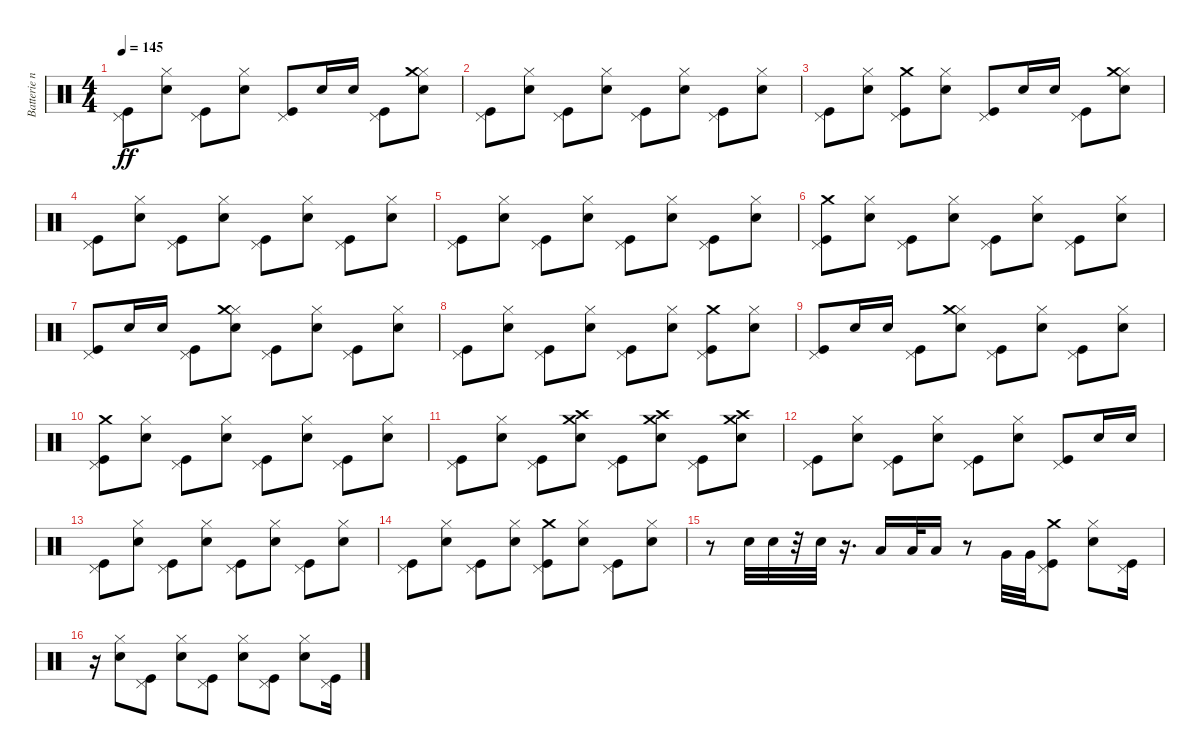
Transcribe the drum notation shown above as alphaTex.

\track ("Batterie n°3" "Batterie n") {instrument percussion}
\staff {score}
\articulation defaults
\ts (4 4)
\tempo 145
\clef neutral
\ks c
("Kick (hit)" "Pedal Hi-Hat (hit)").8{dy ff} ("Snare (hit) 2" "Hi-Hat (closed)").8 ("Kick (hit)" "Pedal Hi-Hat (hit)").8 ("Snare (hit) 2" "Hi-Hat (closed)").8 ("Kick (hit)" "Pedal Hi-Hat (hit)").8 "Snare (hit) 2".16 "Snare (hit) 2".16 ("Kick (hit)" "Pedal Hi-Hat (hit)").8 ("Snare (hit) 2" "Hi-Hat (closed)" "Crash medium (hit)").8 |
("Kick (hit)" "Pedal Hi-Hat (hit)").8 ("Snare (hit) 2" "Hi-Hat (closed)").8 ("Kick (hit)" "Pedal Hi-Hat (hit)").8 ("Snare (hit) 2" "Hi-Hat (closed)").8 ("Kick (hit)" "Pedal Hi-Hat (hit)").8 ("Snare (hit) 2" "Hi-Hat (closed)").8 ("Kick (hit)" "Pedal Hi-Hat (hit)").8 ("Snare (hit) 2" "Hi-Hat (closed)").8 |
("Kick (hit)" "Pedal Hi-Hat (hit)").8 ("Snare (hit) 2" "Hi-Hat (closed)").8 ("Kick (hit)" "Pedal Hi-Hat (hit)" "Crash medium (hit)").8 ("Snare (hit) 2" "Hi-Hat (closed)").8 ("Kick (hit)" "Pedal Hi-Hat (hit)").8 "Snare (hit) 2".16 "Snare (hit) 2".16 ("Kick (hit)" "Pedal Hi-Hat (hit)").8 ("Snare (hit) 2" "Hi-Hat (closed)" "Crash medium (hit)").8 |
("Kick (hit)" "Pedal Hi-Hat (hit)").8 ("Snare (hit) 2" "Hi-Hat (closed)").8 ("Kick (hit)" "Pedal Hi-Hat (hit)").8 ("Snare (hit) 2" "Hi-Hat (closed)").8 ("Kick (hit)" "Pedal Hi-Hat (hit)").8 ("Snare (hit) 2" "Hi-Hat (closed)").8 ("Kick (hit)" "Pedal Hi-Hat (hit)").8 ("Snare (hit) 2" "Hi-Hat (closed)").8 |
("Kick (hit)" "Pedal Hi-Hat (hit)").8 ("Snare (hit) 2" "Hi-Hat (closed)").8 ("Kick (hit)" "Pedal Hi-Hat (hit)").8 ("Snare (hit) 2" "Hi-Hat (closed)").8 ("Kick (hit)" "Pedal Hi-Hat (hit)").8 ("Snare (hit) 2" "Hi-Hat (closed)").8 ("Kick (hit)" "Pedal Hi-Hat (hit)").8 ("Snare (hit) 2" "Hi-Hat (closed)").8 |
("Kick (hit)" "Pedal Hi-Hat (hit)" "Crash medium (hit)").8 ("Snare (hit) 2" "Hi-Hat (closed)").8 ("Kick (hit)" "Pedal Hi-Hat (hit)").8 ("Snare (hit) 2" "Hi-Hat (closed)").8 ("Kick (hit)" "Pedal Hi-Hat (hit)").8 ("Snare (hit) 2" "Hi-Hat (closed)").8 ("Kick (hit)" "Pedal Hi-Hat (hit)").8 ("Snare (hit) 2" "Hi-Hat (closed)").8 |
("Kick (hit)" "Pedal Hi-Hat (hit)").8 "Snare (hit) 2".16 "Snare (hit) 2".16 ("Kick (hit)" "Pedal Hi-Hat (hit)").8 ("Snare (hit) 2" "Hi-Hat (closed)" "Crash medium (hit)").8 ("Kick (hit)" "Pedal Hi-Hat (hit)").8 ("Snare (hit) 2" "Hi-Hat (closed)").8 ("Kick (hit)" "Pedal Hi-Hat (hit)").8 ("Snare (hit) 2" "Hi-Hat (closed)").8 |
("Kick (hit)" "Pedal Hi-Hat (hit)").8 ("Snare (hit) 2" "Hi-Hat (closed)").8 ("Kick (hit)" "Pedal Hi-Hat (hit)").8 ("Snare (hit) 2" "Hi-Hat (closed)").8 ("Kick (hit)" "Pedal Hi-Hat (hit)").8 ("Snare (hit) 2" "Hi-Hat (closed)").8 ("Kick (hit)" "Pedal Hi-Hat (hit)" "Crash medium (hit)").8 ("Snare (hit) 2" "Hi-Hat (closed)").8 |
("Kick (hit)" "Pedal Hi-Hat (hit)").8 "Snare (hit) 2".16 "Snare (hit) 2".16 ("Kick (hit)" "Pedal Hi-Hat (hit)").8 ("Snare (hit) 2" "Hi-Hat (closed)" "Crash medium (hit)").8 ("Kick (hit)" "Pedal Hi-Hat (hit)").8 ("Snare (hit) 2" "Hi-Hat (closed)").8 ("Kick (hit)" "Pedal Hi-Hat (hit)").8 ("Snare (hit) 2" "Hi-Hat (closed)").8 |
("Kick (hit)" "Pedal Hi-Hat (hit)" "Crash medium (hit)").8 ("Snare (hit) 2" "Hi-Hat (closed)").8 ("Kick (hit)" "Pedal Hi-Hat (hit)").8 ("Snare (hit) 2" "Hi-Hat (closed)").8 ("Kick (hit)" "Pedal Hi-Hat (hit)").8 ("Snare (hit) 2" "Hi-Hat (closed)").8 ("Kick (hit)" "Pedal Hi-Hat (hit)").8 ("Snare (hit) 2" "Hi-Hat (closed)").8 |
("Kick (hit)" "Pedal Hi-Hat (hit)").8 ("Snare (hit) 2" "Hi-Hat (closed)").8 ("Kick (hit)" "Pedal Hi-Hat (hit)").8 ("Snare (hit) 2" "Crash high (hit)" "Crash medium (hit)").8 ("Kick (hit)" "Pedal Hi-Hat (hit)").8 ("Snare (hit) 2" "Crash high (hit)" "Crash medium (hit)").8 ("Kick (hit)" "Pedal Hi-Hat (hit)").8 ("Snare (hit) 2" "Crash high (hit)" "Crash medium (hit)").8 |
("Kick (hit)" "Pedal Hi-Hat (hit)").8 ("Snare (hit) 2" "Hi-Hat (closed)").8 ("Kick (hit)" "Pedal Hi-Hat (hit)").8 ("Snare (hit) 2" "Hi-Hat (closed)").8 ("Kick (hit)" "Pedal Hi-Hat (hit)").8 ("Snare (hit) 2" "Hi-Hat (closed)").8 ("Kick (hit)" "Pedal Hi-Hat (hit)").8 "Snare (hit) 2".16 "Snare (hit) 2".16 |
("Kick (hit)" "Pedal Hi-Hat (hit)").8 ("Snare (hit) 2" "Hi-Hat (closed)").8 ("Kick (hit)" "Pedal Hi-Hat (hit)").8 ("Snare (hit) 2" "Hi-Hat (closed)").8 ("Kick (hit)" "Pedal Hi-Hat (hit)").8 ("Snare (hit) 2" "Hi-Hat (closed)").8 ("Kick (hit)" "Pedal Hi-Hat (hit)").8 ("Snare (hit) 2" "Hi-Hat (closed)").8 |
("Kick (hit)" "Pedal Hi-Hat (hit)").8 ("Snare (hit) 2" "Hi-Hat (closed)").8 ("Kick (hit)" "Pedal Hi-Hat (hit)").8 ("Snare (hit) 2" "Hi-Hat (closed)").8 ("Kick (hit)" "Pedal Hi-Hat (hit)" "Crash medium (hit)").8 ("Snare (hit) 2" "Hi-Hat (closed)").8 ("Kick (hit)" "Pedal Hi-Hat (hit)").8 ("Snare (hit) 2" "Hi-Hat (closed)").8 |
r.8 "Snare (hit) 2".32 "Snare (hit) 2".32 r.32 "Snare (hit) 2".32 r.16{d} "Low Tom (hit)".16 "Low Tom (hit)".32 "Low Tom (hit)".16 r.8 "Very Low Tom (hit)".32 "Very Low Tom (hit)".32 ("Kick (hit)" "Pedal Hi-Hat (hit)" "Crash medium (hit)").8 ("Snare (hit) 2" "Hi-Hat (closed)").8 ("Kick (hit)" "Pedal Hi-Hat (hit)").16 |
r.16 ("Snare (hit) 2" "Hi-Hat (closed)").8 ("Kick (hit)" "Pedal Hi-Hat (hit)").8 ("Snare (hit) 2" "Hi-Hat (closed)").8 ("Kick (hit)" "Pedal Hi-Hat (hit)").8 ("Snare (hit) 2" "Hi-Hat (closed)").8 ("Kick (hit)" "Pedal Hi-Hat (hit)").8 ("Snare (hit) 2" "Hi-Hat (closed)").8 ("Kick (hit)" "Pedal Hi-Hat (hit)").16
